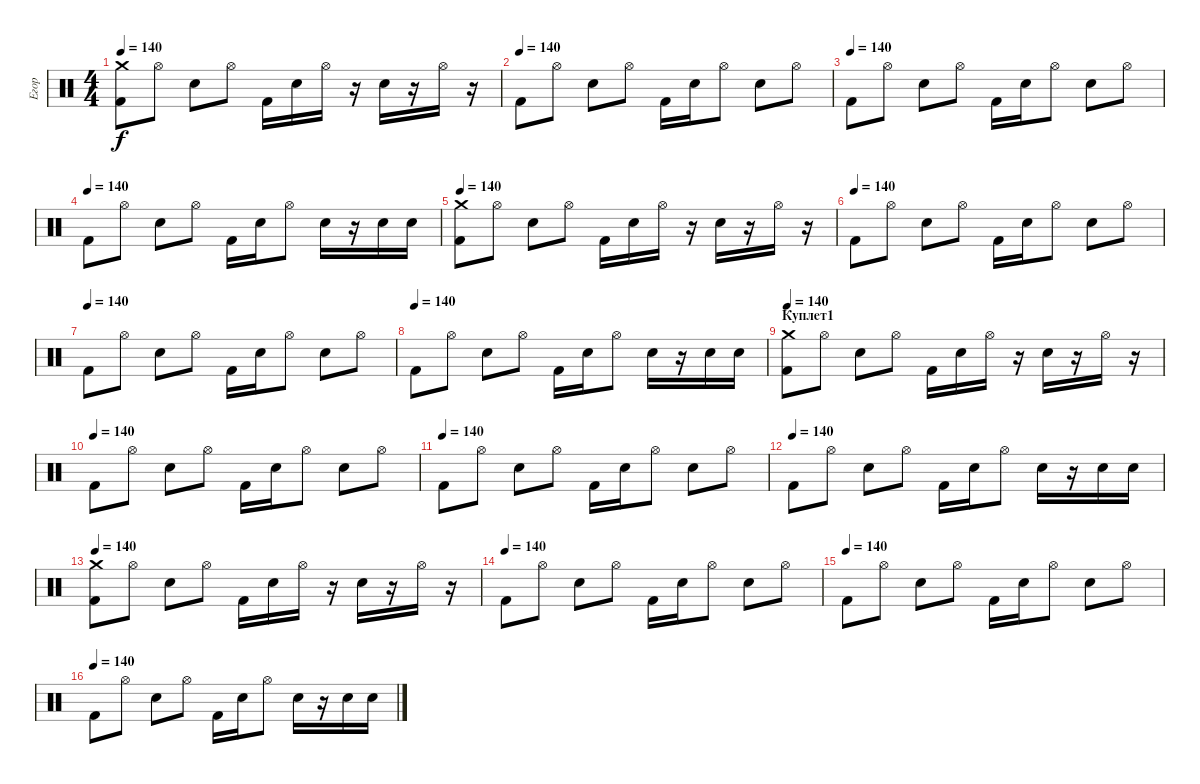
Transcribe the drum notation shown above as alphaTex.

\track ("Егор" "Егор") {instrument percussion}
\staff {score}
\articulation defaults
\ts (4 4)
\tempo 140
\clef neutral
\ks c
("Crash medium (hit)" "Kick (hit) 2").8{dy f} "Hi-Hat (open)".8 "Snare (hit) 2".8 "Hi-Hat (open)".8 "Kick (hit) 2".16 "Snare (hit) 2".16 "Hi-Hat (open)".16 r.16 "Snare (hit) 2".16 r.16 "Hi-Hat (open)".16 r.16 |
\tempo (140)
"Kick (hit) 2".8 "Hi-Hat (open)".8 "Snare (hit) 2".8 "Hi-Hat (open)".8 "Kick (hit) 2".16 "Snare (hit) 2".16 "Hi-Hat (open)".8 "Snare (hit) 2".8 "Hi-Hat (open)".8 |
\tempo (140)
"Kick (hit) 2".8 "Hi-Hat (open)".8 "Snare (hit) 2".8 "Hi-Hat (open)".8 "Kick (hit) 2".16 "Snare (hit) 2".16 "Hi-Hat (open)".8 "Snare (hit) 2".8 "Hi-Hat (open)".8 |
\tempo (140)
"Kick (hit) 2".8 "Hi-Hat (open)".8 "Snare (hit) 2".8 "Hi-Hat (open)".8 "Kick (hit) 2".16 "Snare (hit) 2".16 "Hi-Hat (open)".8 "Snare (hit) 2".16 r.16 "Snare (hit) 2".16 "Snare (hit) 2".16 |
\tempo 140
("Crash medium (hit)" "Kick (hit) 2").8 "Hi-Hat (open)".8 "Snare (hit) 2".8 "Hi-Hat (open)".8 "Kick (hit) 2".16 "Snare (hit) 2".16 "Hi-Hat (open)".16 r.16 "Snare (hit) 2".16 r.16 "Hi-Hat (open)".16 r.16 |
\tempo (140)
"Kick (hit) 2".8 "Hi-Hat (open)".8 "Snare (hit) 2".8 "Hi-Hat (open)".8 "Kick (hit) 2".16 "Snare (hit) 2".16 "Hi-Hat (open)".8 "Snare (hit) 2".8 "Hi-Hat (open)".8 |
\tempo (140)
"Kick (hit) 2".8 "Hi-Hat (open)".8 "Snare (hit) 2".8 "Hi-Hat (open)".8 "Kick (hit) 2".16 "Snare (hit) 2".16 "Hi-Hat (open)".8 "Snare (hit) 2".8 "Hi-Hat (open)".8 |
\tempo (140)
"Kick (hit) 2".8 "Hi-Hat (open)".8 "Snare (hit) 2".8 "Hi-Hat (open)".8 "Kick (hit) 2".16 "Snare (hit) 2".16 "Hi-Hat (open)".8 "Snare (hit) 2".16 r.16 "Snare (hit) 2".16 "Snare (hit) 2".16 |
\section ("" "Куплет1")
\tempo 140
("Crash medium (hit)" "Kick (hit) 2").8 "Hi-Hat (open)".8 "Snare (hit) 2".8 "Hi-Hat (open)".8 "Kick (hit) 2".16 "Snare (hit) 2".16 "Hi-Hat (open)".16 r.16 "Snare (hit) 2".16 r.16 "Hi-Hat (open)".16 r.16 |
\tempo (140)
"Kick (hit) 2".8 "Hi-Hat (open)".8 "Snare (hit) 2".8 "Hi-Hat (open)".8 "Kick (hit) 2".16 "Snare (hit) 2".16 "Hi-Hat (open)".8 "Snare (hit) 2".8 "Hi-Hat (open)".8 |
\tempo (140)
"Kick (hit) 2".8 "Hi-Hat (open)".8 "Snare (hit) 2".8 "Hi-Hat (open)".8 "Kick (hit) 2".16 "Snare (hit) 2".16 "Hi-Hat (open)".8 "Snare (hit) 2".8 "Hi-Hat (open)".8 |
\tempo (140)
"Kick (hit) 2".8 "Hi-Hat (open)".8 "Snare (hit) 2".8 "Hi-Hat (open)".8 "Kick (hit) 2".16 "Snare (hit) 2".16 "Hi-Hat (open)".8 "Snare (hit) 2".16 r.16 "Snare (hit) 2".16 "Snare (hit) 2".16 |
\tempo 140
("Crash medium (hit)" "Kick (hit) 2").8 "Hi-Hat (open)".8 "Snare (hit) 2".8 "Hi-Hat (open)".8 "Kick (hit) 2".16 "Snare (hit) 2".16 "Hi-Hat (open)".16 r.16 "Snare (hit) 2".16 r.16 "Hi-Hat (open)".16 r.16 |
\tempo (140)
"Kick (hit) 2".8 "Hi-Hat (open)".8 "Snare (hit) 2".8 "Hi-Hat (open)".8 "Kick (hit) 2".16 "Snare (hit) 2".16 "Hi-Hat (open)".8 "Snare (hit) 2".8 "Hi-Hat (open)".8 |
\tempo (140)
"Kick (hit) 2".8 "Hi-Hat (open)".8 "Snare (hit) 2".8 "Hi-Hat (open)".8 "Kick (hit) 2".16 "Snare (hit) 2".16 "Hi-Hat (open)".8 "Snare (hit) 2".8 "Hi-Hat (open)".8 |
\tempo (140)
"Kick (hit) 2".8 "Hi-Hat (open)".8 "Snare (hit) 2".8 "Hi-Hat (open)".8 "Kick (hit) 2".16 "Snare (hit) 2".16 "Hi-Hat (open)".8 "Snare (hit) 2".16 r.16 "Snare (hit) 2".16 "Snare (hit) 2".16
